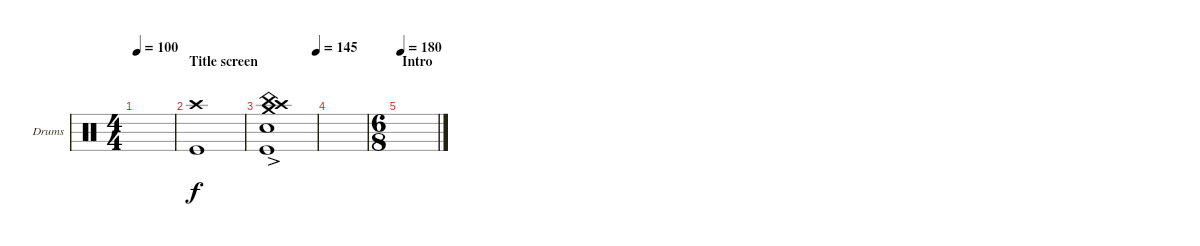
\defaultSystemsLayout 4
\bracketExtendMode groupsimilarinstruments
\firstSystemTrackNameOrientation horizontal
\otherSystemsTrackNameOrientation horizontal
\track ("Drumkit" "Drums") {instrument percussion}
\staff {score}
\articulation defaults
\ts (4 4)
\tempo 100
\clef neutral
\ks c
|
\section ("" "Title screen")
("Kick (hit)" "Crash high (hit)").1 |
\tempo (145 1)
("Crash medium (hit)"{ac} "Crash high (hit)"{ac} "China (hit)"{ac} "Snare (hit) 2"{ac} "Kick (hit)").1 |
|
\ts (6 8)
\section ("" "Intro")
\tempo 180
